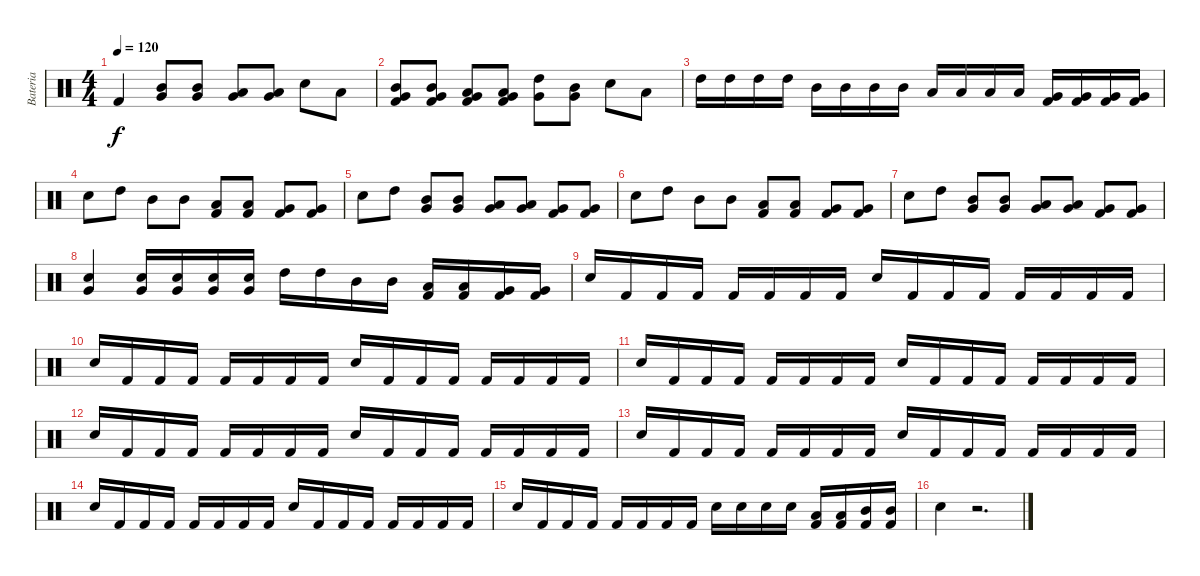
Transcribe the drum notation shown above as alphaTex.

\track ("Bateria" "Bateria") {instrument percussion}
\staff {score}
\articulation defaults
\ts (4 4)
\tempo 120
\clef neutral
\ks c "Kick (hit) 2".4{dy f}
("Very Low Tom (hit)" "Mid Tom (hit)").8 ("Very Low Tom (hit)" "Mid Tom (hit)").8 ("Very Low Tom (hit)" "Low Tom (hit)").8 ("Very Low Tom (hit)" "Low Tom (hit)").8 "Snare (hit) 2".8 "Low Tom (hit)".8 |
("Kick (hit) 2" "Very Low Tom (hit)" "Mid Tom (hit)").8 ("Kick (hit) 2" "Very Low Tom (hit)" "Mid Tom (hit)").8 ("Kick (hit) 2" "Very Low Tom (hit)" "Low Tom (hit)").8 ("Kick (hit) 2" "Very Low Tom (hit)" "Low Tom (hit)").8 ("Very Low Tom (hit)" "High Tom (hit)").8 ("Very Low Tom (hit)" "Mid Tom (hit)").8 "Snare (hit) 2".8 "Low Tom (hit)".8 |
"High Tom (hit)".16 "High Tom (hit)".16 "High Tom (hit)".16 "High Tom (hit)".16 "Mid Tom (hit)".16 "Mid Tom (hit)".16 "Mid Tom (hit)".16 "Mid Tom (hit)".16 "Low Tom (hit)".16 "Low Tom (hit)".16 "Low Tom (hit)".16 "Low Tom (hit)".16 ("Kick (hit) 2" "Very Low Tom (hit)").16 ("Kick (hit) 2" "Very Low Tom (hit)").16 ("Kick (hit) 2" "Very Low Tom (hit)").16 ("Kick (hit) 2" "Very Low Tom (hit)").16 |
"Snare (hit) 2".8 "High Tom (hit)".8 "Mid Tom (hit)".8 "Mid Tom (hit)".8 ("Kick (hit) 2" "Low Tom (hit)").8 ("Kick (hit) 2" "Low Tom (hit)").8 ("Kick (hit) 2" "Very Low Tom (hit)").8 ("Kick (hit) 2" "Very Low Tom (hit)").8 |
"Snare (hit) 2".8 "High Tom (hit)".8 ("Very Low Tom (hit)" "Mid Tom (hit)").8 ("Very Low Tom (hit)" "Mid Tom (hit)").8 ("Very Low Tom (hit)" "Low Tom (hit)").8 ("Very Low Tom (hit)" "Low Tom (hit)").8 ("Very Low Tom (hit)" "Kick (hit) 2").8 ("Very Low Tom (hit)" "Kick (hit) 2").8 |
"Snare (hit) 2".8 "High Tom (hit)".8 "Mid Tom (hit)".8 "Mid Tom (hit)".8 ("Kick (hit) 2" "Low Tom (hit)").8 ("Kick (hit) 2" "Low Tom (hit)").8 ("Kick (hit) 2" "Very Low Tom (hit)").8 ("Kick (hit) 2" "Very Low Tom (hit)").8 |
"Snare (hit) 2".8 "High Tom (hit)".8 ("Very Low Tom (hit)" "Mid Tom (hit)").8 ("Very Low Tom (hit)" "Mid Tom (hit)").8 ("Very Low Tom (hit)" "Low Tom (hit)").8 ("Very Low Tom (hit)" "Low Tom (hit)").8 ("Very Low Tom (hit)" "Kick (hit) 2").8 ("Very Low Tom (hit)" "Kick (hit) 2").8 |
("Very Low Tom (hit)" "Snare (hit) 2").4 ("Very Low Tom (hit)" "Snare (hit) 2").16 ("Very Low Tom (hit)" "Snare (hit) 2").16 ("Very Low Tom (hit)" "Snare (hit) 2").16 ("Very Low Tom (hit)" "Snare (hit) 2").16 "High Tom (hit)".16 "High Tom (hit)".16 "Mid Tom (hit)".16 "Mid Tom (hit)".16 ("Kick (hit) 2" "Low Tom (hit)").16 ("Kick (hit) 2" "Low Tom (hit)").16 ("Kick (hit) 2" "Very Low Tom (hit)").16 ("Kick (hit) 2" "Very Low Tom (hit)").16 |
"Snare (hit) 2".16 "Kick (hit) 2".16 "Kick (hit) 2".16 "Kick (hit) 2".16 "Kick (hit) 2".16 "Kick (hit) 2".16 "Kick (hit) 2".16 "Kick (hit) 2".16 "Snare (hit) 2".16 "Kick (hit) 2".16 "Kick (hit) 2".16 "Kick (hit) 2".16 "Kick (hit) 2".16 "Kick (hit) 2".16 "Kick (hit) 2".16 "Kick (hit) 2".16 |
"Snare (hit) 2".16 "Kick (hit) 2".16 "Kick (hit) 2".16 "Kick (hit) 2".16 "Kick (hit) 2".16 "Kick (hit) 2".16 "Kick (hit) 2".16 "Kick (hit) 2".16 "Snare (hit) 2".16 "Kick (hit) 2".16 "Kick (hit) 2".16 "Kick (hit) 2".16 "Kick (hit) 2".16 "Kick (hit) 2".16 "Kick (hit) 2".16 "Kick (hit) 2".16 |
"Snare (hit) 2".16 "Kick (hit) 2".16 "Kick (hit) 2".16 "Kick (hit) 2".16 "Kick (hit) 2".16 "Kick (hit) 2".16 "Kick (hit) 2".16 "Kick (hit) 2".16 "Snare (hit) 2".16 "Kick (hit) 2".16 "Kick (hit) 2".16 "Kick (hit) 2".16 "Kick (hit) 2".16 "Kick (hit) 2".16 "Kick (hit) 2".16 "Kick (hit) 2".16 |
"Snare (hit) 2".16 "Kick (hit) 2".16 "Kick (hit) 2".16 "Kick (hit) 2".16 "Kick (hit) 2".16 "Kick (hit) 2".16 "Kick (hit) 2".16 "Kick (hit) 2".16 "Snare (hit) 2".16 "Kick (hit) 2".16 "Kick (hit) 2".16 "Kick (hit) 2".16 "Kick (hit) 2".16 "Kick (hit) 2".16 "Kick (hit) 2".16 "Kick (hit) 2".16 |
"Snare (hit) 2".16 "Kick (hit) 2".16 "Kick (hit) 2".16 "Kick (hit) 2".16 "Kick (hit) 2".16 "Kick (hit) 2".16 "Kick (hit) 2".16 "Kick (hit) 2".16 "Snare (hit) 2".16 "Kick (hit) 2".16 "Kick (hit) 2".16 "Kick (hit) 2".16 "Kick (hit) 2".16 "Kick (hit) 2".16 "Kick (hit) 2".16 "Kick (hit) 2".16 |
"Snare (hit) 2".16 "Kick (hit) 2".16 "Kick (hit) 2".16 "Kick (hit) 2".16 "Kick (hit) 2".16 "Kick (hit) 2".16 "Kick (hit) 2".16 "Kick (hit) 2".16 "Snare (hit) 2".16 "Kick (hit) 2".16 "Kick (hit) 2".16 "Kick (hit) 2".16 "Kick (hit) 2".16 "Kick (hit) 2".16 "Kick (hit) 2".16 "Kick (hit) 2".16 |
"Snare (hit) 2".16 "Kick (hit) 2".16 "Kick (hit) 2".16 "Kick (hit) 2".16 "Kick (hit) 2".16 "Kick (hit) 2".16 "Kick (hit) 2".16 "Kick (hit) 2".16 "Snare (hit) 2".16 "Snare (hit) 2".16 "Snare (hit) 2".16 "Snare (hit) 2".16 ("Kick (hit) 2" "Low Tom (hit)").16 ("Kick (hit) 2" "Low Tom (hit)").16 ("Kick (hit) 2" "Mid Tom (hit)").16 ("Kick (hit) 2" "Mid Tom (hit)").16 |
"Snare (hit) 2".4 r.2{d}
